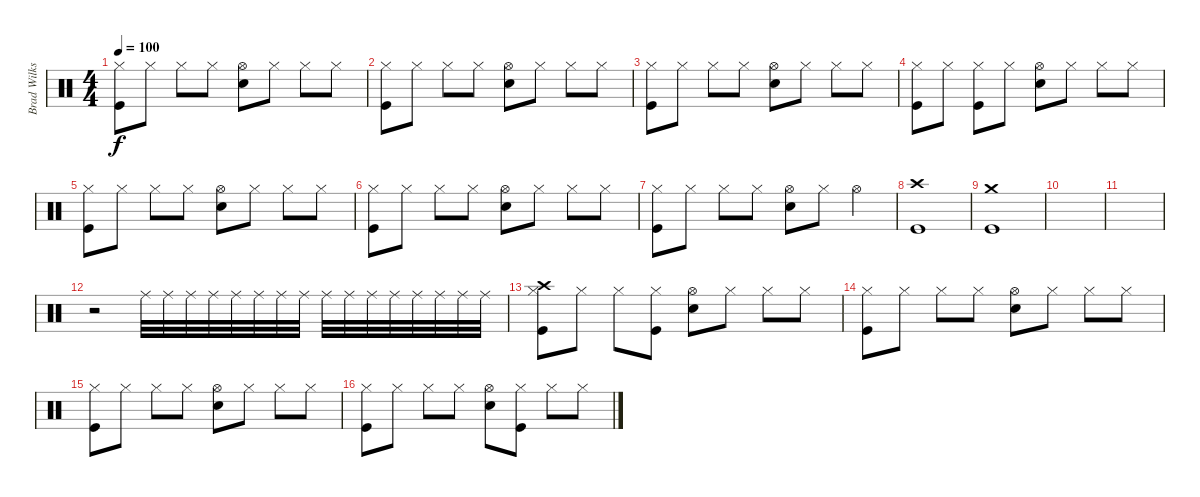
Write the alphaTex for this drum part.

\track ("Brad Wilks (Percussion)" "Brad Wilks") {instrument percussion}
\staff {score}
\articulation defaults
\ts (4 4)
\tempo 100
\clef neutral
\ks c
("Hi-Hat (closed)" "Kick (hit)").8{dy f} "Hi-Hat (closed)".8 "Hi-Hat (closed)".8 "Hi-Hat (closed)".8 ("Hi-Hat (open)" "Electric Snare (hit)").8 "Hi-Hat (closed)".8 "Hi-Hat (closed)".8 "Hi-Hat (closed)".8 |
("Hi-Hat (closed)" "Kick (hit)").8 "Hi-Hat (closed)".8 "Hi-Hat (closed)".8 "Hi-Hat (closed)".8 ("Hi-Hat (open)" "Electric Snare (hit)").8 "Hi-Hat (closed)".8 "Hi-Hat (closed)".8 "Hi-Hat (closed)".8 |
("Hi-Hat (closed)" "Kick (hit)").8 "Hi-Hat (closed)".8 "Hi-Hat (closed)".8 "Hi-Hat (closed)".8 ("Hi-Hat (open)" "Electric Snare (hit)").8 "Hi-Hat (closed)".8 "Hi-Hat (closed)".8 "Hi-Hat (closed)".8 |
("Hi-Hat (closed)" "Kick (hit)").8 "Hi-Hat (closed)".8 ("Hi-Hat (closed)" "Kick (hit)").8 "Hi-Hat (closed)".8 ("Hi-Hat (open)" "Electric Snare (hit)").8 "Hi-Hat (closed)".8 "Hi-Hat (closed)".8 "Hi-Hat (closed)".8 |
("Hi-Hat (closed)" "Kick (hit)").8 "Hi-Hat (closed)".8 "Hi-Hat (closed)".8 "Hi-Hat (closed)".8 ("Hi-Hat (open)" "Electric Snare (hit)").8 "Hi-Hat (closed)".8 "Hi-Hat (closed)".8 "Hi-Hat (closed)".8 |
("Hi-Hat (closed)" "Kick (hit)").8 "Hi-Hat (closed)".8 "Hi-Hat (closed)".8 "Hi-Hat (closed)".8 ("Hi-Hat (open)" "Electric Snare (hit)").8 "Hi-Hat (closed)".8 "Hi-Hat (closed)".8 "Hi-Hat (closed)".8 |
("Hi-Hat (closed)" "Kick (hit)").8 "Hi-Hat (closed)".8 "Hi-Hat (closed)".8 "Hi-Hat (closed)".8 ("Hi-Hat (open)" "Electric Snare (hit)").8 "Hi-Hat (closed)".8 "Hi-Hat (open)".4 |
("Crash high (hit)" "Kick (hit)").1 |
("Crash medium (hit)" "Kick (hit)").1 |
|
|
r.2 "Ride (middle)".32 "Ride (middle)".32 "Ride (middle)".32 "Ride (middle)".32 "Ride (middle)".32 "Ride (middle)".32 "Ride (middle)".32 "Ride (middle)".32 "Ride (middle)".32 "Ride (middle)".32 "Ride (middle)".32 "Ride (middle)".32 "Ride (middle)".32 "Ride (middle)".32 "Ride (middle)".32 "Ride (middle)".32 |
("Crash high (hit)" "Hi-Hat (closed)" "Kick (hit)").8 "Hi-Hat (closed)".8 "Hi-Hat (closed)".8 ("Hi-Hat (closed)" "Kick (hit)").8 ("Hi-Hat (open)" "Electric Snare (hit)").8 "Hi-Hat (closed)".8 "Hi-Hat (closed)".8 "Hi-Hat (closed)".8 |
("Hi-Hat (closed)" "Kick (hit)").8 "Hi-Hat (closed)".8 "Hi-Hat (closed)".8 "Hi-Hat (closed)".8 ("Hi-Hat (open)" "Electric Snare (hit)").8 "Hi-Hat (closed)".8 "Hi-Hat (closed)".8 "Hi-Hat (closed)".8 |
("Hi-Hat (closed)" "Kick (hit)").8 "Hi-Hat (closed)".8 "Hi-Hat (closed)".8 "Hi-Hat (closed)".8 ("Hi-Hat (open)" "Electric Snare (hit)").8 "Hi-Hat (closed)".8 "Hi-Hat (closed)".8 "Hi-Hat (closed)".8 |
("Hi-Hat (closed)" "Kick (hit)").8 "Hi-Hat (closed)".8 "Hi-Hat (closed)".8 "Hi-Hat (closed)".8 ("Hi-Hat (open)" "Electric Snare (hit)").8 ("Hi-Hat (closed)" "Kick (hit)").8 "Hi-Hat (closed)".8 "Hi-Hat (closed)".8
